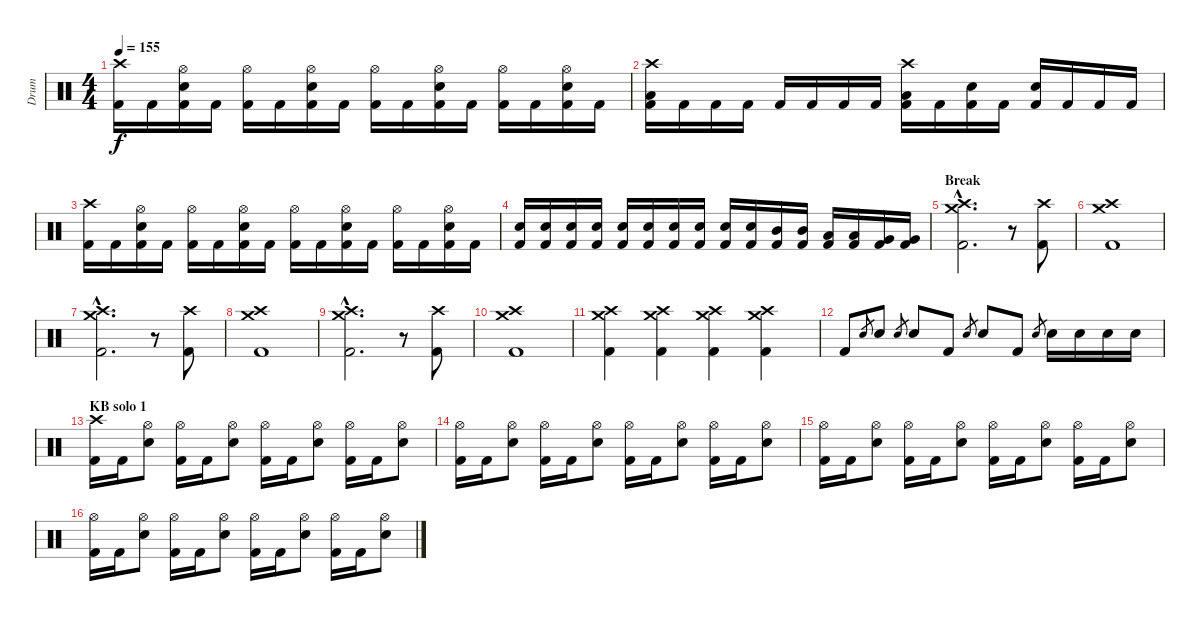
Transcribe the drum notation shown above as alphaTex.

\track ("Drum" "Drum") {instrument percussion}
\staff {score}
\articulation defaults
\ts (4 4)
\tempo 155
\clef neutral
\ks c
("Crash high (hit)" "Kick (hit) 2").16{dy f} "Kick (hit) 2".16 ("Hi-Hat (open)" "Electric Snare (hit)" "Kick (hit) 2").16 "Kick (hit) 2".16 ("Hi-Hat (open)" "Kick (hit) 2").16 "Kick (hit) 2".16 ("Hi-Hat (open)" "Electric Snare (hit)" "Kick (hit) 2").16 "Kick (hit) 2".16 ("Hi-Hat (open)" "Kick (hit) 2").16 "Kick (hit) 2".16 ("Hi-Hat (open)" "Electric Snare (hit)" "Kick (hit) 2").16 "Kick (hit) 2".16 ("Hi-Hat (open)" "Kick (hit) 2").16 "Kick (hit) 2".16 ("Hi-Hat (open)" "Electric Snare (hit)" "Kick (hit) 2").16 "Kick (hit) 2".16 |
("Crash high (hit)" "Low Tom (hit)" "Kick (hit) 2").16 "Kick (hit) 2".16 "Kick (hit) 2".16 "Kick (hit) 2".16 "Kick (hit) 2".16 "Kick (hit) 2".16 "Kick (hit) 2".16 "Kick (hit) 2".16 ("Crash high (hit)" "Low Tom (hit)" "Kick (hit) 2").16 "Kick (hit) 2".16 ("Electric Snare (hit)" "Kick (hit) 2").16 "Kick (hit) 2".16 ("Electric Snare (hit)" "Kick (hit) 2").16 "Kick (hit) 2".16 "Kick (hit) 2".16 "Kick (hit) 2".16 |
("Crash high (hit)" "Kick (hit) 2").16 "Kick (hit) 2".16 ("Hi-Hat (open)" "Electric Snare (hit)" "Kick (hit) 2").16 "Kick (hit) 2".16 ("Hi-Hat (open)" "Kick (hit) 2").16 "Kick (hit) 2".16 ("Hi-Hat (open)" "Electric Snare (hit)" "Kick (hit) 2").16 "Kick (hit) 2".16 ("Hi-Hat (open)" "Kick (hit) 2").16 "Kick (hit) 2".16 ("Hi-Hat (open)" "Electric Snare (hit)" "Kick (hit) 2").16 "Kick (hit) 2".16 ("Hi-Hat (open)" "Kick (hit) 2").16 "Kick (hit) 2".16 ("Hi-Hat (open)" "Electric Snare (hit)" "Kick (hit) 2").16 "Kick (hit) 2".16 |
("Electric Snare (hit)" "Kick (hit) 2").16 ("Electric Snare (hit)" "Kick (hit) 2").16 ("Electric Snare (hit)" "Kick (hit) 2").16 ("Electric Snare (hit)" "Kick (hit) 2").16 ("Electric Snare (hit)" "Kick (hit) 2").16 ("Electric Snare (hit)" "Kick (hit) 2").16 ("Electric Snare (hit)" "Kick (hit) 2").16 ("Electric Snare (hit)" "Kick (hit) 2").16 ("Electric Snare (hit)" "Kick (hit) 2").16 ("Electric Snare (hit)" "Kick (hit) 2").16 ("Mid Tom (hit)" "Kick (hit) 2").16 ("Mid Tom (hit)" "Kick (hit) 2").16 ("Low Tom (hit)" "Kick (hit) 2").16 ("Low Tom (hit)" "Kick (hit) 2").16 ("Very Low Tom (hit)" "Kick (hit) 2").16 ("Very Low Tom (hit)" "Kick (hit) 2").16 |
\section ("" "Break")
("Crash high (hit)"{hac} "Crash medium (hit)"{hac} "Kick (hit) 2"{hac}).2{d} r.8 ("Crash high (hit)" "Kick (hit) 2").8 |
("Crash high (hit)" "Crash medium (hit)" "Kick (hit) 2").1 |
("Crash high (hit)"{hac} "Crash medium (hit)"{hac} "Kick (hit) 2"{hac}).2{d} r.8 ("Crash high (hit)" "Kick (hit) 2").8 |
("Crash high (hit)" "Crash medium (hit)" "Kick (hit) 2").1 |
("Crash high (hit)"{hac} "Crash medium (hit)"{hac} "Kick (hit) 2"{hac}).2{d} r.8 ("Crash high (hit)" "Kick (hit) 2").8 |
("Crash high (hit)" "Crash medium (hit)" "Kick (hit) 2").1 |
("Crash high (hit)" "Crash medium (hit)" "Kick (hit) 2").4 ("Crash high (hit)" "Crash medium (hit)" "Kick (hit) 2").4 ("Crash high (hit)" "Crash medium (hit)" "Kick (hit) 2").4 ("Crash high (hit)" "Crash medium (hit)" "Kick (hit) 2").4 |
"Kick (hit) 2".8 "Electric Snare (hit)".8{gr} "Electric Snare (hit)".8 "Electric Snare (hit)".8{gr} "Electric Snare (hit)".8 "Kick (hit) 2".8 "Electric Snare (hit)".8{gr} "Electric Snare (hit)".8 "Kick (hit) 2".8 "Electric Snare (hit)".8{gr} "Electric Snare (hit)".16 "Electric Snare (hit)".16 "Electric Snare (hit)".16 "Electric Snare (hit)".16 |
\section ("" "KB solo 1")
("Crash high (hit)" "Kick (hit) 2").16 "Kick (hit) 2".16 ("Hi-Hat (open)" "Electric Snare (hit)").8 ("Hi-Hat (open)" "Kick (hit) 2").16 "Kick (hit) 2".16 ("Hi-Hat (open)" "Electric Snare (hit)").8 ("Hi-Hat (open)" "Kick (hit) 2").16 "Kick (hit) 2".16 ("Hi-Hat (open)" "Electric Snare (hit)").8 ("Hi-Hat (open)" "Kick (hit) 2").16 "Kick (hit) 2".16 ("Hi-Hat (open)" "Electric Snare (hit)").8 |
("Hi-Hat (open)" "Kick (hit) 2").16 "Kick (hit) 2".16 ("Hi-Hat (open)" "Electric Snare (hit)").8 ("Hi-Hat (open)" "Kick (hit) 2").16 "Kick (hit) 2".16 ("Hi-Hat (open)" "Electric Snare (hit)").8 ("Hi-Hat (open)" "Kick (hit) 2").16 "Kick (hit) 2".16 ("Hi-Hat (open)" "Electric Snare (hit)").8 ("Hi-Hat (open)" "Kick (hit) 2").16 "Kick (hit) 2".16 ("Hi-Hat (open)" "Electric Snare (hit)").8 |
("Hi-Hat (open)" "Kick (hit) 2").16 "Kick (hit) 2".16 ("Hi-Hat (open)" "Electric Snare (hit)").8 ("Hi-Hat (open)" "Kick (hit) 2").16 "Kick (hit) 2".16 ("Hi-Hat (open)" "Electric Snare (hit)").8 ("Hi-Hat (open)" "Kick (hit) 2").16 "Kick (hit) 2".16 ("Hi-Hat (open)" "Electric Snare (hit)").8 ("Hi-Hat (open)" "Kick (hit) 2").16 "Kick (hit) 2".16 ("Hi-Hat (open)" "Electric Snare (hit)").8 |
("Hi-Hat (open)" "Kick (hit) 2").16 "Kick (hit) 2".16 ("Hi-Hat (open)" "Electric Snare (hit)").8 ("Hi-Hat (open)" "Kick (hit) 2").16 "Kick (hit) 2".16 ("Hi-Hat (open)" "Electric Snare (hit)").8 ("Hi-Hat (open)" "Kick (hit) 2").16 "Kick (hit) 2".16 ("Hi-Hat (open)" "Electric Snare (hit)").8 ("Hi-Hat (open)" "Kick (hit) 2").16 "Kick (hit) 2".16 ("Hi-Hat (open)" "Electric Snare (hit)").8
